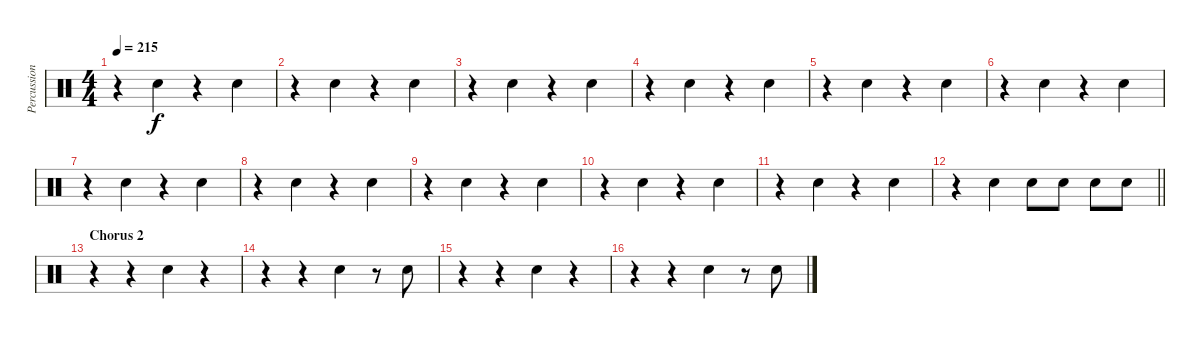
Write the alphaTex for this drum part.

\track ("Percussion" "Percussion") {instrument percussion}
\staff {score}
\articulation defaults
\ts (4 4)
\tempo 215
\clef neutral
\ks c
r.4{dy f} "Snare (hit) 2".4 r.4 "Snare (hit) 2".4 |
r.4 "Snare (hit) 2".4 r.4 "Snare (hit) 2".4 |
r.4 "Snare (hit) 2".4 r.4 "Snare (hit) 2".4 |
r.4 "Snare (hit) 2".4 r.4 "Snare (hit) 2".4 |
r.4 "Snare (hit) 2".4 r.4 "Snare (hit) 2".4 |
r.4 "Snare (hit) 2".4 r.4 "Snare (hit) 2".4 |
r.4 "Snare (hit) 2".4 r.4 "Snare (hit) 2".4 |
r.4 "Snare (hit) 2".4 r.4 "Snare (hit) 2".4 |
r.4 "Snare (hit) 2".4 r.4 "Snare (hit) 2".4 |
r.4 "Snare (hit) 2".4 r.4 "Snare (hit) 2".4 |
r.4 "Snare (hit) 2".4 r.4 "Snare (hit) 2".4 |
\barLineRight lightlight
r.4 "Snare (hit) 2".4 "Snare (hit) 2".8 "Snare (hit) 2".8 "Snare (hit) 2".8 "Snare (hit) 2".8 |
\section ("" "Chorus 2")
r.4 r.4 "Snare (hit) 2".4 r.4 |
r.4 r.4 "Snare (hit) 2".4 r.8 "Snare (hit) 2".8 |
r.4 r.4 "Snare (hit) 2".4 r.4 |
r.4 r.4 "Snare (hit) 2".4 r.8 "Snare (hit) 2".8
